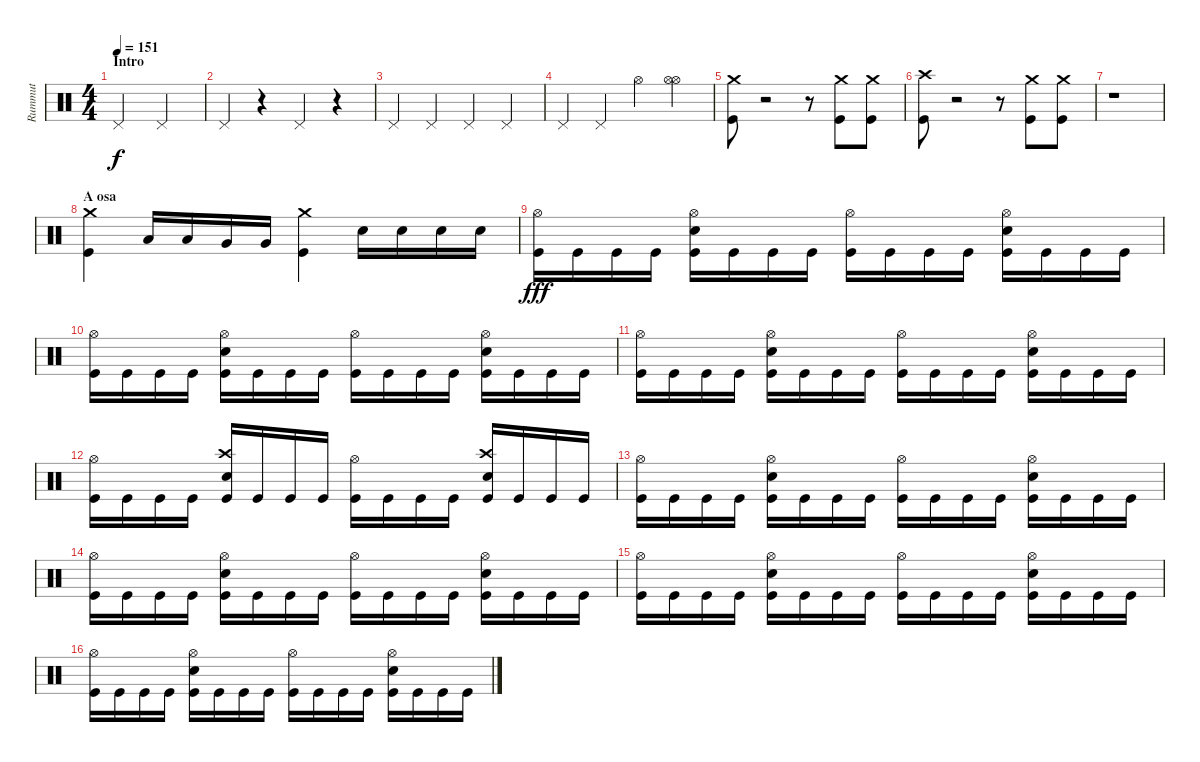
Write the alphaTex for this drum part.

\track ("Rummut" "Rummut") {instrument percussion}
\staff {score}
\articulation defaults
\ts (4 4)
\section ("" "Intro")
\tempo 151
\clef neutral
\ks c "Pedal Hi-Hat (hit)".2{dy f} "Pedal Hi-Hat (hit)".2
|
"Pedal Hi-Hat (hit)".4 r.4 "Pedal Hi-Hat (hit)".4 r.4 |
"Pedal Hi-Hat (hit)".4 "Pedal Hi-Hat (hit)".4 "Pedal Hi-Hat (hit)".4 "Pedal Hi-Hat (hit)".4 |
"Pedal Hi-Hat (hit)".4 "Pedal Hi-Hat (hit)".4 "Hi-Hat (open)".4 ("Hi-Hat (open)" "Hi-Hat (open)").4 |
("Crash medium (hit)" "Kick (hit)").8 r.2 r.8 ("Crash medium (hit)" "Kick (hit)").8 ("Crash medium (hit)" "Kick (hit)").8 |
("Crash high (hit)" "Kick (hit)").8 r.2 r.8 ("Crash medium (hit)" "Kick (hit)").8 ("Crash medium (hit)" "Kick (hit)").8 |
r.1 |
\section ("" "A osa")
("Crash medium (hit)" "Kick (hit)").4 "Low Tom (hit)".16 "Low Tom (hit)".16 "Very Low Tom (hit)".16 "Very Low Tom (hit)".16 ("Crash medium (hit)" "Kick (hit)").4 "Snare (hit) 2".16 "Snare (hit) 2".16 "Snare (hit) 2".16 "Snare (hit) 2".16 |
("Hi-Hat (open)" "Kick (hit)").16{dy fff} "Kick (hit)".16 "Kick (hit)".16 "Kick (hit)".16 ("Hi-Hat (open)" "Snare (hit) 2" "Kick (hit)").16 "Kick (hit)".16 "Kick (hit)".16 "Kick (hit)".16 ("Hi-Hat (open)" "Kick (hit)").16 "Kick (hit)".16 "Kick (hit)".16 "Kick (hit)".16 ("Hi-Hat (open)" "Snare (hit) 2" "Kick (hit)").16 "Kick (hit)".16 "Kick (hit)".16 "Kick (hit)".16 |
("Hi-Hat (open)" "Kick (hit)").16 "Kick (hit)".16 "Kick (hit)".16 "Kick (hit)".16 ("Hi-Hat (open)" "Snare (hit) 2" "Kick (hit)").16 "Kick (hit)".16 "Kick (hit)".16 "Kick (hit)".16 ("Hi-Hat (open)" "Kick (hit)").16 "Kick (hit)".16 "Kick (hit)".16 "Kick (hit)".16 ("Hi-Hat (open)" "Snare (hit) 2" "Kick (hit)").16 "Kick (hit)".16 "Kick (hit)".16 "Kick (hit)".16 |
("Hi-Hat (open)" "Kick (hit)").16 "Kick (hit)".16 "Kick (hit)".16 "Kick (hit)".16 ("Hi-Hat (open)" "Snare (hit) 2" "Kick (hit)").16 "Kick (hit)".16 "Kick (hit)".16 "Kick (hit)".16 ("Hi-Hat (open)" "Kick (hit)").16 "Kick (hit)".16 "Kick (hit)".16 "Kick (hit)".16 ("Hi-Hat (open)" "Snare (hit) 2" "Kick (hit)").16 "Kick (hit)".16 "Kick (hit)".16 "Kick (hit)".16 |
("Hi-Hat (open)" "Kick (hit)").16 "Kick (hit)".16 "Kick (hit)".16 "Kick (hit)".16 ("Crash high (hit)" "Snare (hit) 2" "Kick (hit)").16 "Kick (hit)".16 "Kick (hit)".16 "Kick (hit)".16 ("Hi-Hat (open)" "Kick (hit)").16 "Kick (hit)".16 "Kick (hit)".16 "Kick (hit)".16 ("Crash high (hit)" "Snare (hit) 2" "Kick (hit)").16 "Kick (hit)".16 "Kick (hit)".16 "Kick (hit)".16 |
("Hi-Hat (open)" "Kick (hit)").16 "Kick (hit)".16 "Kick (hit)".16 "Kick (hit)".16 ("Hi-Hat (open)" "Snare (hit) 2" "Kick (hit)").16 "Kick (hit)".16 "Kick (hit)".16 "Kick (hit)".16 ("Hi-Hat (open)" "Kick (hit)").16 "Kick (hit)".16 "Kick (hit)".16 "Kick (hit)".16 ("Hi-Hat (open)" "Snare (hit) 2" "Kick (hit)").16 "Kick (hit)".16 "Kick (hit)".16 "Kick (hit)".16 |
("Hi-Hat (open)" "Kick (hit)").16 "Kick (hit)".16 "Kick (hit)".16 "Kick (hit)".16 ("Hi-Hat (open)" "Snare (hit) 2" "Kick (hit)").16 "Kick (hit)".16 "Kick (hit)".16 "Kick (hit)".16 ("Hi-Hat (open)" "Kick (hit)").16 "Kick (hit)".16 "Kick (hit)".16 "Kick (hit)".16 ("Hi-Hat (open)" "Snare (hit) 2" "Kick (hit)").16 "Kick (hit)".16 "Kick (hit)".16 "Kick (hit)".16 |
("Hi-Hat (open)" "Kick (hit)").16 "Kick (hit)".16 "Kick (hit)".16 "Kick (hit)".16 ("Hi-Hat (open)" "Snare (hit) 2" "Kick (hit)").16 "Kick (hit)".16 "Kick (hit)".16 "Kick (hit)".16 ("Hi-Hat (open)" "Kick (hit)").16 "Kick (hit)".16 "Kick (hit)".16 "Kick (hit)".16 ("Hi-Hat (open)" "Snare (hit) 2" "Kick (hit)").16 "Kick (hit)".16 "Kick (hit)".16 "Kick (hit)".16 |
("Hi-Hat (open)" "Kick (hit)").16 "Kick (hit)".16 "Kick (hit)".16 "Kick (hit)".16 ("Hi-Hat (open)" "Snare (hit) 2" "Kick (hit)").16 "Kick (hit)".16 "Kick (hit)".16 "Kick (hit)".16 ("Hi-Hat (open)" "Kick (hit)").16 "Kick (hit)".16 "Kick (hit)".16 "Kick (hit)".16 ("Hi-Hat (open)" "Snare (hit) 2" "Kick (hit)").16 "Kick (hit)".16 "Kick (hit)".16 "Kick (hit)".16
